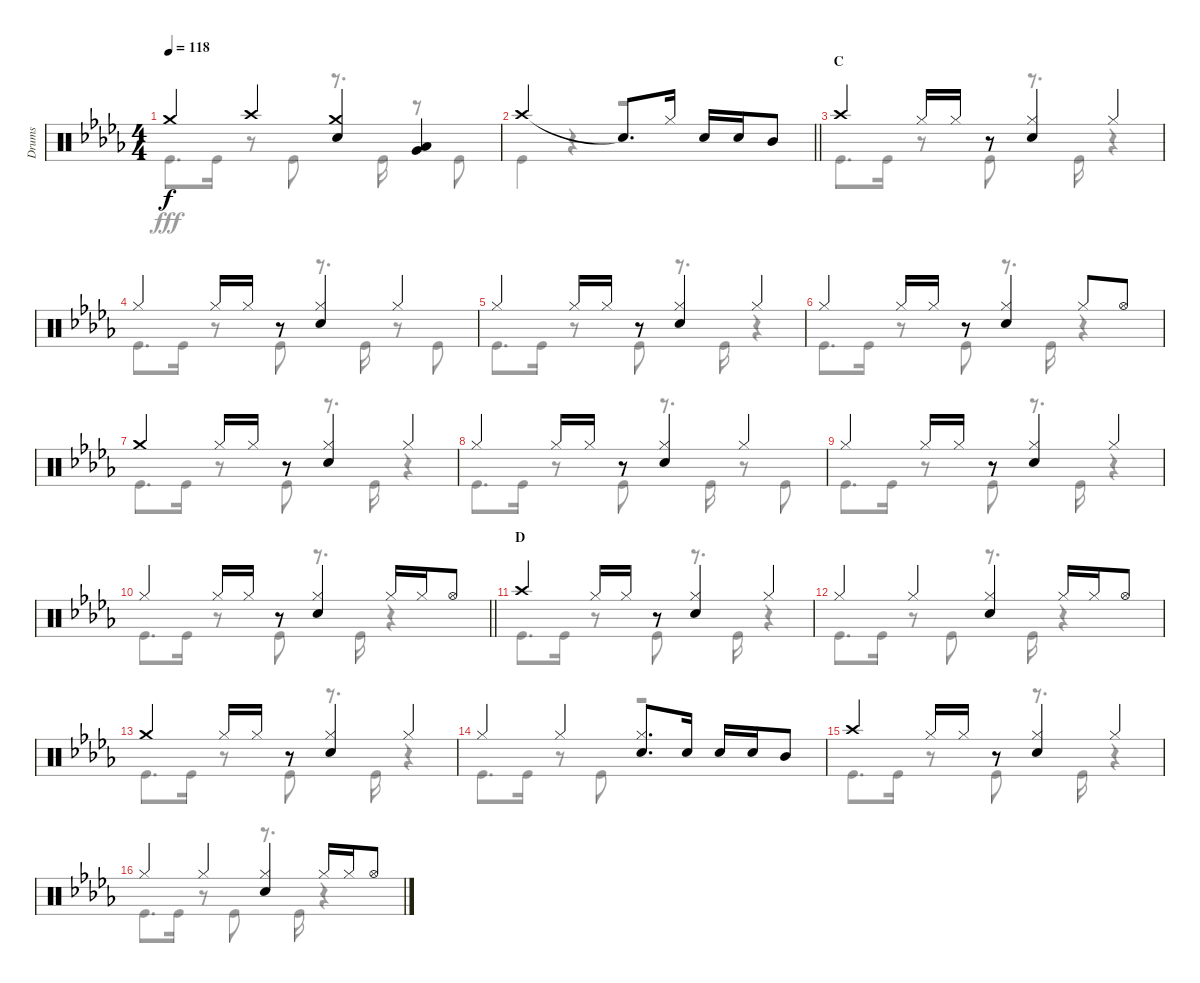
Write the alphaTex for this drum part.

\track ("Drums" "Drums") {instrument percussion}
\staff {score}
\articulation defaults
\voice
\ts (4 4)
\tempo 118
\clef neutral
\ks db "Crash medium (hit)".4{dy f} "Crash high (hit)".4
("Crash medium (hit)" "Snare (hit) 2").4 ("Low Tom (hit)" "Very Low Tom (hit)").4 |
\barLineRight lightlight "Crash high (hit)".2 "Snare (hit)"{t}.8{d} "Hi-Hat (closed)".16 "Snare (hit) 2".16 "Snare (hit) 2".16 "Mid Tom (hit)".8
|
\section ("" "C")
"Crash high (hit)".4 "Hi-Hat (closed)".16 "Hi-Hat (closed)".16 r.8 ("Hi-Hat (closed)" "Snare (hit) 2").4 "Hi-Hat (closed)".4 |
"Hi-Hat (closed)".4 "Hi-Hat (closed)".16 "Hi-Hat (closed)".16 r.8 ("Hi-Hat (closed)" "Snare (hit) 2").4 "Hi-Hat (closed)".4 |
"Hi-Hat (closed)".4 "Hi-Hat (closed)".16 "Hi-Hat (closed)".16 r.8 ("Hi-Hat (closed)" "Snare (hit) 2").4 "Hi-Hat (closed)".4 |
"Hi-Hat (closed)".4 "Hi-Hat (closed)".16 "Hi-Hat (closed)".16 r.8 ("Hi-Hat (closed)" "Snare (hit) 2").4 "Hi-Hat (closed)".8 "Hi-Hat (open)".8 |
"Crash medium (hit)".4 "Hi-Hat (closed)".16 "Hi-Hat (closed)".16 r.8 ("Hi-Hat (closed)" "Snare (hit) 2").4 "Hi-Hat (closed)".4 |
"Hi-Hat (closed)".4 "Hi-Hat (closed)".16 "Hi-Hat (closed)".16 r.8 ("Hi-Hat (closed)" "Snare (hit) 2").4 "Hi-Hat (closed)".4 |
"Hi-Hat (closed)".4 "Hi-Hat (closed)".16 "Hi-Hat (closed)".16 r.8 ("Hi-Hat (closed)" "Snare (hit) 2").4 "Hi-Hat (closed)".4 |
\barLineRight lightlight "Hi-Hat (closed)".4 "Hi-Hat (closed)".16 "Hi-Hat (closed)".16
r.8 ("Hi-Hat (closed)" "Snare (hit) 2").4 "Hi-Hat (closed)".16 "Hi-Hat (closed)".16 "Hi-Hat (open)".8 |
\section ("" "D")
"Crash high (hit)".4 "Hi-Hat (closed)".16 "Hi-Hat (closed)".16 r.8 ("Hi-Hat (closed)" "Snare (hit) 2").4 "Hi-Hat (closed)".4 |
"Hi-Hat (closed)".4 "Hi-Hat (closed)".4 ("Hi-Hat (closed)" "Snare (hit) 2").4 "Hi-Hat (closed)".16 "Hi-Hat (closed)".16 "Hi-Hat (open)".8 |
"Crash medium (hit)".4 "Hi-Hat (closed)".16 "Hi-Hat (closed)".16 r.8 ("Hi-Hat (closed)" "Snare (hit) 2").4 "Hi-Hat (closed)".4 |
"Hi-Hat (closed)".4 "Hi-Hat (closed)".4 ("Hi-Hat (closed)" "Snare (hit) 2").8{d} "Snare (hit) 2".16 "Snare (hit) 2".16 "Snare (hit) 2".16 "Mid Tom (hit)".8 |
"Crash high (hit)".4 "Hi-Hat (closed)".16 "Hi-Hat (closed)".16 r.8 ("Hi-Hat (closed)" "Snare (hit) 2").4 "Hi-Hat (closed)".4 |
"Hi-Hat (closed)".4 "Hi-Hat (closed)".4 ("Hi-Hat (closed)" "Snare (hit) 2").4 "Hi-Hat (closed)".16 "Hi-Hat (closed)".16 "Hi-Hat (open)".8
\voice
\clef neutral
\ottava regular
\simile none
\ks db "Kick (hit)".8{d dy fff} "Kick (hit)".16
r.8 "Kick (hit)".8 r.8{d} "Kick (hit)".16 r.8 "Kick (hit)".8 |
\barLineRight lightlight "Kick (hit)".4
r.4 r.2 |
"Kick (hit)".8{d} "Kick (hit)".16 r.8 "Kick (hit)".8 r.8{d} "Kick (hit)".16 r.4 |
"Kick (hit)".8{d} "Kick (hit)".16 r.8 "Kick (hit)".8 r.8{d} "Kick (hit)".16 r.8 "Kick (hit)".8 |
"Kick (hit)".8{d} "Kick (hit)".16 r.8 "Kick (hit)".8 r.8{d} "Kick (hit)".16 r.4 |
"Kick (hit)".8{d} "Kick (hit)".16 r.8 "Kick (hit)".8 r.8{d} "Kick (hit)".16 r.4 |
"Kick (hit)".8{d} "Kick (hit)".16 r.8 "Kick (hit)".8 r.8{d} "Kick (hit)".16 r.4 |
"Kick (hit)".8{d} "Kick (hit)".16 r.8 "Kick (hit)".8 r.8{d} "Kick (hit)".16 r.8 "Kick (hit)".8 |
"Kick (hit)".8{d} "Kick (hit)".16 r.8 "Kick (hit)".8 r.8{d} "Kick (hit)".16 r.4 |
\barLineRight lightlight "Kick (hit)".8{d} "Kick (hit)".16
r.8 "Kick (hit)".8 r.8{d} "Kick (hit)".16 r.4 |
"Kick (hit)".8{d} "Kick (hit)".16 r.8 "Kick (hit)".8 r.8{d} "Kick (hit)".16 r.4 |
"Kick (hit)".8{d} "Kick (hit)".16 r.8 "Kick (hit)".8 r.8{d} "Kick (hit)".16 r.4 |
"Kick (hit)".8{d} "Kick (hit)".16 r.8 "Kick (hit)".8 r.8{d} "Kick (hit)".16 r.4 |
"Kick (hit)".8{d} "Kick (hit)".16 r.8 "Kick (hit)".8 r.2 |
"Kick (hit)".8{d} "Kick (hit)".16 r.8 "Kick (hit)".8 r.8{d} "Kick (hit)".16 r.4 |
"Kick (hit)".8{d} "Kick (hit)".16 r.8 "Kick (hit)".8 r.8{d} "Kick (hit)".16 r.4
